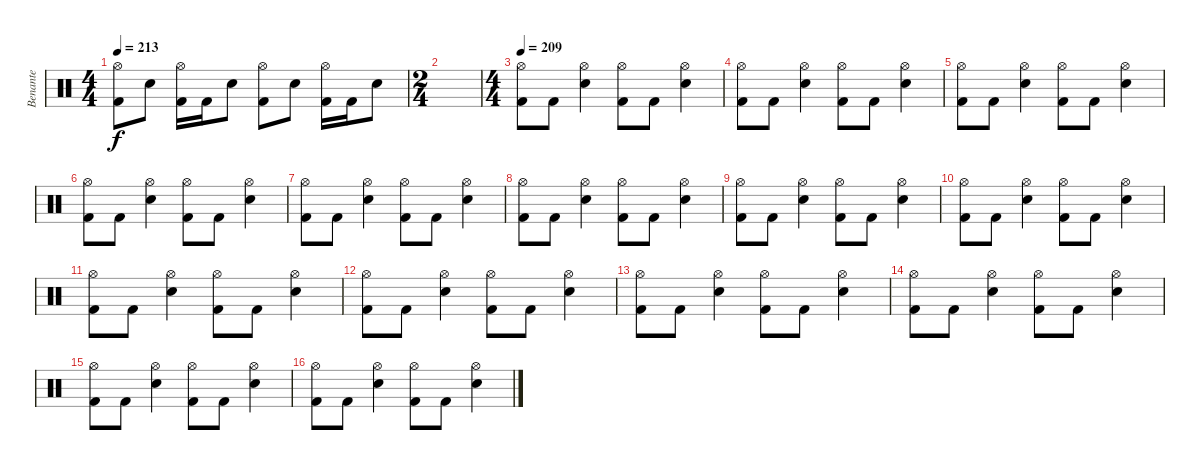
\track ("Benante" "Benante") {solo instrument percussion}
\staff {score}
\articulation defaults
\ts (4 4)
\tempo 213
\clef neutral
\ks c
("Kick (hit) 2" "Hi-Hat (open)").8{dy f} "Electric Snare (hit)".8 ("Kick (hit) 2" "Hi-Hat (open)").16 "Kick (hit) 2".16 "Electric Snare (hit)".8 ("Kick (hit) 2" "Hi-Hat (open)").8 "Electric Snare (hit)".8 ("Kick (hit) 2" "Hi-Hat (open)").16 "Kick (hit) 2".16 "Electric Snare (hit)".8 |
\ts (2 4)
|
\ts (4 4)
\tempo 209
("Kick (hit) 2" "Hi-Hat (open)").8 "Kick (hit) 2".8 ("Electric Snare (hit)" "Hi-Hat (open)").4 ("Kick (hit) 2" "Hi-Hat (open)").8 "Kick (hit) 2".8 ("Electric Snare (hit)" "Hi-Hat (open)").4 |
("Kick (hit) 2" "Hi-Hat (open)").8 "Kick (hit) 2".8 ("Electric Snare (hit)" "Hi-Hat (open)").4 ("Kick (hit) 2" "Hi-Hat (open)").8 "Kick (hit) 2".8 ("Electric Snare (hit)" "Hi-Hat (open)").4 |
("Kick (hit) 2" "Hi-Hat (open)").8 "Kick (hit) 2".8 ("Electric Snare (hit)" "Hi-Hat (open)").4 ("Kick (hit) 2" "Hi-Hat (open)").8 "Kick (hit) 2".8 ("Electric Snare (hit)" "Hi-Hat (open)").4 |
("Kick (hit) 2" "Hi-Hat (open)").8 "Kick (hit) 2".8 ("Electric Snare (hit)" "Hi-Hat (open)").4 ("Kick (hit) 2" "Hi-Hat (open)").8 "Kick (hit) 2".8 ("Electric Snare (hit)" "Hi-Hat (open)").4 |
("Kick (hit) 2" "Hi-Hat (open)").8 "Kick (hit) 2".8 ("Electric Snare (hit)" "Hi-Hat (open)").4 ("Kick (hit) 2" "Hi-Hat (open)").8 "Kick (hit) 2".8 ("Electric Snare (hit)" "Hi-Hat (open)").4 |
("Kick (hit) 2" "Hi-Hat (open)").8 "Kick (hit) 2".8 ("Electric Snare (hit)" "Hi-Hat (open)").4 ("Kick (hit) 2" "Hi-Hat (open)").8 "Kick (hit) 2".8 ("Electric Snare (hit)" "Hi-Hat (open)").4 |
("Kick (hit) 2" "Hi-Hat (open)").8 "Kick (hit) 2".8 ("Electric Snare (hit)" "Hi-Hat (open)").4 ("Kick (hit) 2" "Hi-Hat (open)").8 "Kick (hit) 2".8 ("Electric Snare (hit)" "Hi-Hat (open)").4 |
("Kick (hit) 2" "Hi-Hat (open)").8 "Kick (hit) 2".8 ("Electric Snare (hit)" "Hi-Hat (open)").4 ("Kick (hit) 2" "Hi-Hat (open)").8 "Kick (hit) 2".8 ("Electric Snare (hit)" "Hi-Hat (open)").4 |
("Kick (hit) 2" "Hi-Hat (open)").8 "Kick (hit) 2".8 ("Electric Snare (hit)" "Hi-Hat (open)").4 ("Kick (hit) 2" "Hi-Hat (open)").8 "Kick (hit) 2".8 ("Electric Snare (hit)" "Hi-Hat (open)").4 |
("Kick (hit) 2" "Hi-Hat (open)").8 "Kick (hit) 2".8 ("Electric Snare (hit)" "Hi-Hat (open)").4 ("Kick (hit) 2" "Hi-Hat (open)").8 "Kick (hit) 2".8 ("Electric Snare (hit)" "Hi-Hat (open)").4 |
("Kick (hit) 2" "Hi-Hat (open)").8 "Kick (hit) 2".8 ("Electric Snare (hit)" "Hi-Hat (open)").4 ("Kick (hit) 2" "Hi-Hat (open)").8 "Kick (hit) 2".8 ("Electric Snare (hit)" "Hi-Hat (open)").4 |
("Kick (hit) 2" "Hi-Hat (open)").8 "Kick (hit) 2".8 ("Electric Snare (hit)" "Hi-Hat (open)").4 ("Kick (hit) 2" "Hi-Hat (open)").8 "Kick (hit) 2".8 ("Electric Snare (hit)" "Hi-Hat (open)").4 |
("Kick (hit) 2" "Hi-Hat (open)").8 "Kick (hit) 2".8 ("Electric Snare (hit)" "Hi-Hat (open)").4 ("Kick (hit) 2" "Hi-Hat (open)").8 "Kick (hit) 2".8 ("Electric Snare (hit)" "Hi-Hat (open)").4 |
("Kick (hit) 2" "Hi-Hat (open)").8 "Kick (hit) 2".8 ("Electric Snare (hit)" "Hi-Hat (open)").4 ("Kick (hit) 2" "Hi-Hat (open)").8 "Kick (hit) 2".8 ("Electric Snare (hit)" "Hi-Hat (open)").4
